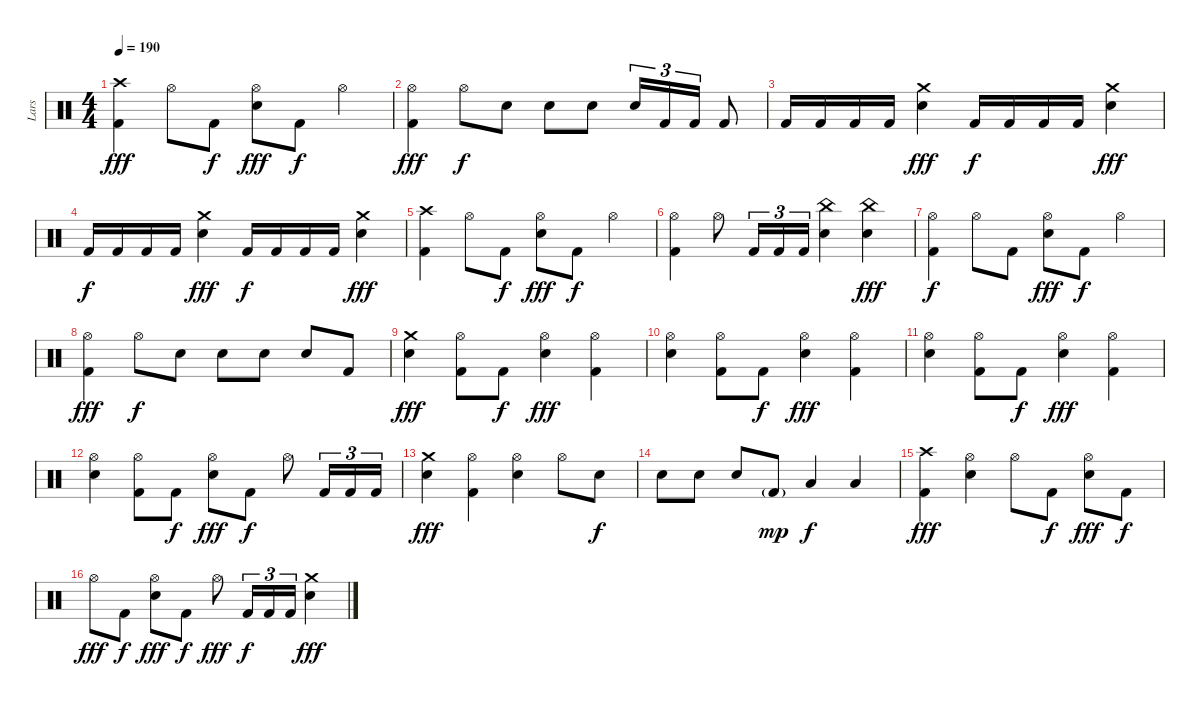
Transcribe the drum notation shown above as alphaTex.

\track ("Lars" "Lars") {instrument percussion}
\staff {score}
\articulation defaults
\ts (4 4)
\tempo 190
\clef neutral
\ks c
("Crash high (hit)" "Kick (hit) 2").4{dy fff} "Hi-Hat (open)".8 "Kick (hit) 2".8{dy f} ("Hi-Hat (open)" "Snare (hit) 2").8{dy fff} "Kick (hit) 2".8{dy f} "Hi-Hat (open)".4 |
("Hi-Hat (open)" "Kick (hit) 2").4{dy fff} "Hi-Hat (open)".8{dy f} "Snare (hit) 2".8 "Snare (hit) 2".8 "Snare (hit) 2".8 "Snare (hit) 2".16{tu (3 2)} "Kick (hit) 2".16{tu (3 2)} "Kick (hit) 2".16{tu (3 2)} "Kick (hit) 2".8 |
"Kick (hit) 2".16 "Kick (hit) 2".16 "Kick (hit) 2".16 "Kick (hit) 2".16 ("Crash medium (hit)" "Snare (hit) 2").4{dy fff} "Kick (hit) 2".16{dy f} "Kick (hit) 2".16 "Kick (hit) 2".16 "Kick (hit) 2".16 ("Crash medium (hit)" "Snare (hit) 2").4{dy fff} |
"Kick (hit) 2".16{dy f} "Kick (hit) 2".16 "Kick (hit) 2".16 "Kick (hit) 2".16 ("Crash medium (hit)" "Snare (hit) 2").4{dy fff} "Kick (hit) 2".16{dy f} "Kick (hit) 2".16 "Kick (hit) 2".16 "Kick (hit) 2".16 ("Crash medium (hit)" "Snare (hit) 2").4{dy fff} |
("Crash high (hit)" "Kick (hit) 2").4 "Hi-Hat (open)".8 "Kick (hit) 2".8{dy f} ("Hi-Hat (open)" "Snare (hit) 2").8{dy fff} "Kick (hit) 2".8{dy f} "Hi-Hat (open)".4 |
("Hi-Hat (open)" "Kick (hit) 2").4 "Hi-Hat (open)".8 "Kick (hit) 2".16{tu (3 2)} "Kick (hit) 2".16{tu (3 2)} "Kick (hit) 2".16{tu (3 2)} ("China (hit)" "Snare (hit) 2").4 ("China (hit)" "Snare (hit) 2").4{dy fff} |
("Hi-Hat (open)" "Kick (hit) 2").4{dy f} "Hi-Hat (open)".8 "Kick (hit) 2".8 ("Hi-Hat (open)" "Snare (hit) 2").8{dy fff} "Kick (hit) 2".8{dy f} "Hi-Hat (open)".4 |
("Hi-Hat (open)" "Kick (hit) 2").4{dy fff} "Hi-Hat (open)".8{dy f} "Snare (hit) 2".8 "Snare (hit) 2".8 "Snare (hit) 2".8 "Snare (hit) 2".8 "Kick (hit) 2".8 |
("Crash medium (hit)" "Snare (hit) 2").4{dy fff} ("Hi-Hat (open)" "Kick (hit) 2").8 "Kick (hit) 2".8{dy f} ("Hi-Hat (open)" "Snare (hit) 2").4{dy fff} ("Hi-Hat (open)" "Kick (hit) 2").4 |
("Hi-Hat (open)" "Snare (hit) 2").4 ("Hi-Hat (open)" "Kick (hit) 2").8 "Kick (hit) 2".8{dy f} ("Hi-Hat (open)" "Snare (hit) 2").4{dy fff} ("Hi-Hat (open)" "Kick (hit) 2").4 |
("Hi-Hat (open)" "Snare (hit) 2").4 ("Hi-Hat (open)" "Kick (hit) 2").8 "Kick (hit) 2".8{dy f} ("Hi-Hat (open)" "Snare (hit) 2").4{dy fff} ("Hi-Hat (open)" "Kick (hit) 2").4 |
("Hi-Hat (open)" "Snare (hit) 2").4 ("Hi-Hat (open)" "Kick (hit) 2").8 "Kick (hit) 2".8{dy f} ("Hi-Hat (open)" "Snare (hit) 2").8{dy fff} "Kick (hit) 2".8{dy f} "Hi-Hat (open)".8 "Kick (hit) 2".16{tu (3 2)} "Kick (hit) 2".16{tu (3 2)} "Kick (hit) 2".16{tu (3 2)} |
("Crash medium (hit)" "Snare (hit) 2").4{dy fff} ("Hi-Hat (open)" "Kick (hit) 2").4 ("Hi-Hat (open)" "Snare (hit) 2").4 "Hi-Hat (open)".8 "Snare (hit) 2".8{dy f} |
"Snare (hit) 2".8 "Snare (hit) 2".8 "Snare (hit) 2".8 "Kick (hit) 2"{g}.8{dy mp} "Low Tom (hit)".4{dy f} "Low Tom (hit)".4 |
("Crash high (hit)" "Kick (hit) 2").4{dy fff} ("Hi-Hat (open)" "Snare (hit) 2").4 "Hi-Hat (open)".8 "Kick (hit) 2".8{dy f} ("Hi-Hat (open)" "Snare (hit) 2").8{dy fff} "Kick (hit) 2".8{dy f} |
"Hi-Hat (open)".8{dy fff} "Kick (hit) 2".8{dy f} ("Hi-Hat (open)" "Snare (hit) 2").8{dy fff} "Kick (hit) 2".8{dy f} "Hi-Hat (open)".8{dy fff} "Kick (hit) 2".16{tu (3 2) dy f} "Kick (hit) 2".16{tu (3 2)} "Kick (hit) 2".16{tu (3 2)} ("Crash medium (hit)" "Snare (hit) 2").4{dy fff}
